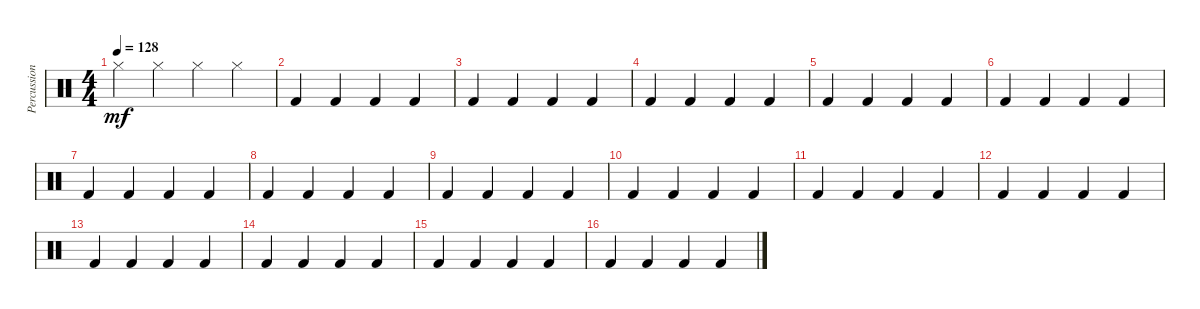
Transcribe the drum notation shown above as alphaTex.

\track ("Percussions" "Percussion") {instrument percussion}
\staff {score}
\articulation defaults
\ts (4 4)
\tempo 128
\clef neutral
\ks c "Hi-Hat (closed)".4{dy mf} "Hi-Hat (closed)".4 "Hi-Hat (closed)".4 "Hi-Hat (closed)".4
|
"Kick (hit) 2".4 "Kick (hit) 2".4 "Kick (hit) 2".4 "Kick (hit) 2".4 |
"Kick (hit) 2".4 "Kick (hit) 2".4 "Kick (hit) 2".4 "Kick (hit) 2".4 |
"Kick (hit) 2".4 "Kick (hit) 2".4 "Kick (hit) 2".4 "Kick (hit) 2".4 |
"Kick (hit) 2".4 "Kick (hit) 2".4 "Kick (hit) 2".4 "Kick (hit) 2".4 |
"Kick (hit) 2".4 "Kick (hit) 2".4 "Kick (hit) 2".4 "Kick (hit) 2".4 |
"Kick (hit) 2".4 "Kick (hit) 2".4 "Kick (hit) 2".4 "Kick (hit) 2".4 |
"Kick (hit) 2".4 "Kick (hit) 2".4 "Kick (hit) 2".4 "Kick (hit) 2".4 |
"Kick (hit) 2".4 "Kick (hit) 2".4 "Kick (hit) 2".4 "Kick (hit) 2".4 |
"Kick (hit) 2".4 "Kick (hit) 2".4 "Kick (hit) 2".4 "Kick (hit) 2".4 |
"Kick (hit) 2".4 "Kick (hit) 2".4 "Kick (hit) 2".4 "Kick (hit) 2".4 |
"Kick (hit) 2".4 "Kick (hit) 2".4 "Kick (hit) 2".4 "Kick (hit) 2".4 |
"Kick (hit) 2".4 "Kick (hit) 2".4 "Kick (hit) 2".4 "Kick (hit) 2".4 |
"Kick (hit) 2".4 "Kick (hit) 2".4 "Kick (hit) 2".4 "Kick (hit) 2".4 |
"Kick (hit) 2".4 "Kick (hit) 2".4 "Kick (hit) 2".4 "Kick (hit) 2".4 |
"Kick (hit) 2".4 "Kick (hit) 2".4 "Kick (hit) 2".4 "Kick (hit) 2".4
